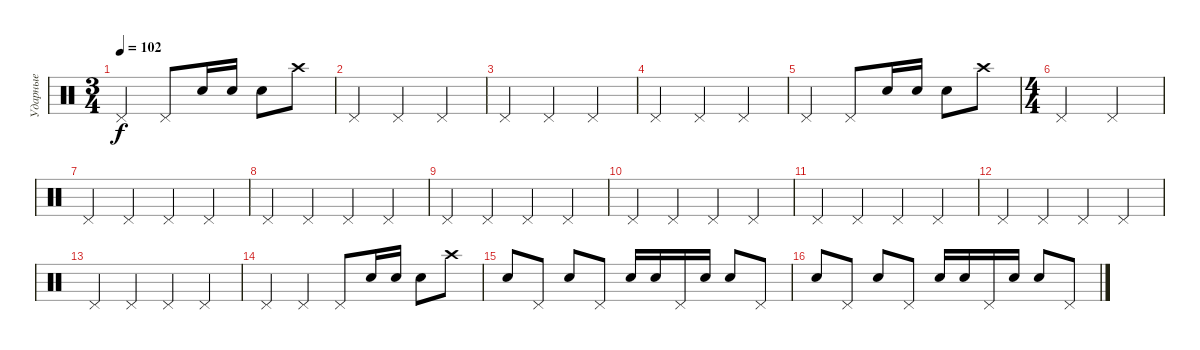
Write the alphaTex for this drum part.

\track ("Ударные" "Ударные") {instrument percussion}
\staff {score}
\articulation defaults
\ts (3 4)
\tempo 102
\clef neutral
\ks c "Pedal Hi-Hat (hit)".4{dy f} "Pedal Hi-Hat (hit)".8 "Snare (hit) 2".16 "Snare (hit) 2".16 "Snare (hit) 2".8 "Crash high (hit)".8
|
"Pedal Hi-Hat (hit)".4 "Pedal Hi-Hat (hit)".4 "Pedal Hi-Hat (hit)".4 |
"Pedal Hi-Hat (hit)".4 "Pedal Hi-Hat (hit)".4 "Pedal Hi-Hat (hit)".4 |
"Pedal Hi-Hat (hit)".4 "Pedal Hi-Hat (hit)".4 "Pedal Hi-Hat (hit)".4 |
"Pedal Hi-Hat (hit)".4 "Pedal Hi-Hat (hit)".8 "Snare (hit) 2".16 "Snare (hit) 2".16 "Snare (hit) 2".8 "Crash high (hit)".8 |
\ts (4 4)
"Pedal Hi-Hat (hit)".2 "Pedal Hi-Hat (hit)".2 |
"Pedal Hi-Hat (hit)".4 "Pedal Hi-Hat (hit)".4 "Pedal Hi-Hat (hit)".4 "Pedal Hi-Hat (hit)".4 |
"Pedal Hi-Hat (hit)".4 "Pedal Hi-Hat (hit)".4 "Pedal Hi-Hat (hit)".4 "Pedal Hi-Hat (hit)".4 |
"Pedal Hi-Hat (hit)".4 "Pedal Hi-Hat (hit)".4 "Pedal Hi-Hat (hit)".4 "Pedal Hi-Hat (hit)".4 |
"Pedal Hi-Hat (hit)".4 "Pedal Hi-Hat (hit)".4 "Pedal Hi-Hat (hit)".4 "Pedal Hi-Hat (hit)".4 |
"Pedal Hi-Hat (hit)".4 "Pedal Hi-Hat (hit)".4 "Pedal Hi-Hat (hit)".4 "Pedal Hi-Hat (hit)".4 |
"Pedal Hi-Hat (hit)".4 "Pedal Hi-Hat (hit)".4 "Pedal Hi-Hat (hit)".4 "Pedal Hi-Hat (hit)".4 |
"Pedal Hi-Hat (hit)".4 "Pedal Hi-Hat (hit)".4 "Pedal Hi-Hat (hit)".4 "Pedal Hi-Hat (hit)".4 |
"Pedal Hi-Hat (hit)".4 "Pedal Hi-Hat (hit)".4 "Pedal Hi-Hat (hit)".8 "Snare (hit) 2".16 "Snare (hit) 2".16 "Snare (hit) 2".8 "Crash high (hit)".8 |
"Snare (hit) 2".8 "Pedal Hi-Hat (hit)".8 "Snare (hit) 2".8 "Pedal Hi-Hat (hit)".8 "Snare (hit) 2".16 "Snare (hit) 2".16 "Pedal Hi-Hat (hit)".16 "Snare (hit) 2".16 "Snare (hit) 2".8 "Pedal Hi-Hat (hit)".8 |
"Snare (hit) 2".8 "Pedal Hi-Hat (hit)".8 "Snare (hit) 2".8 "Pedal Hi-Hat (hit)".8 "Snare (hit) 2".16 "Snare (hit) 2".16 "Pedal Hi-Hat (hit)".16 "Snare (hit) 2".16 "Snare (hit) 2".8 "Pedal Hi-Hat (hit)".8
